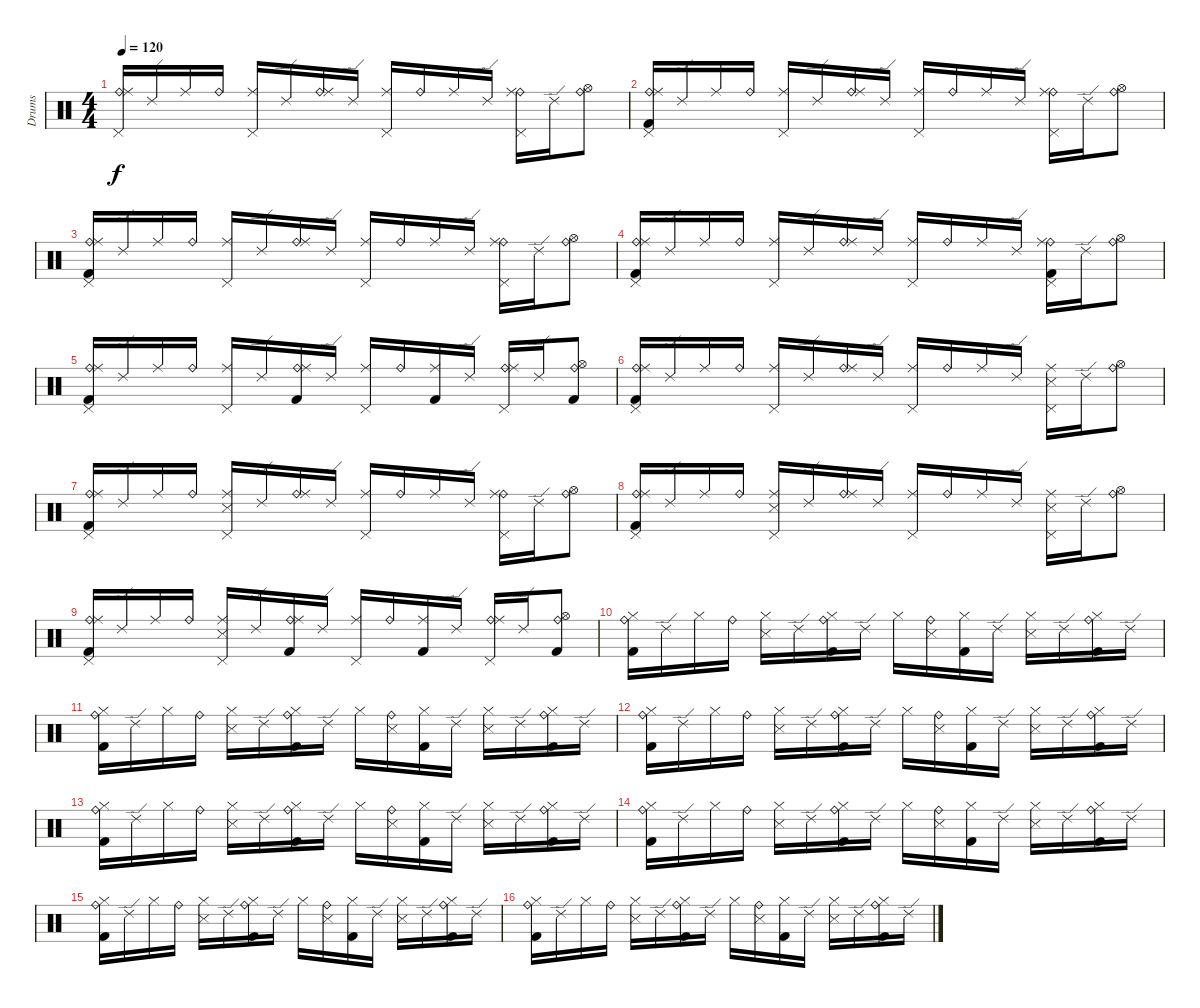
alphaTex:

\track ("Drums" "Drums") {instrument percussion}
\staff {score}
\articulation defaults
\ts (4 4)
\tempo 120
\clef neutral
\ks c
("Pedal Hi-Hat (hit)" "Ride (bell)" "Ride (middle)").16{dy f} "Ride (edge) 2".16 "Ride (middle)".16 "Ride (bell)".16 ("Pedal Hi-Hat (hit)" "Ride (middle)").16 "Ride (edge) 2".16 ("Ride (bell)" "Ride (middle)").16 "Ride (edge) 2".16 ("Pedal Hi-Hat (hit)" "Ride (middle)").16 "Ride (bell)".16 "Ride (middle)".16 "Ride (edge) 2".16 ("Pedal Hi-Hat (hit)" "Ride (bell)" "Ride (middle)").16 "Ride (edge) 2".16 ("Ride (bell)" "Hi-Hat (open)").8 |
("Kick (hit) 2" "Pedal Hi-Hat (hit)" "Ride (bell)" "Ride (middle)").16 "Ride (edge) 2".16 "Ride (middle)".16 "Ride (bell)".16 ("Pedal Hi-Hat (hit)" "Ride (middle)").16 "Ride (edge) 2".16 ("Ride (bell)" "Ride (middle)").16 "Ride (edge) 2".16 ("Pedal Hi-Hat (hit)" "Ride (middle)").16 "Ride (bell)".16 "Ride (middle)".16 "Ride (edge) 2".16 ("Pedal Hi-Hat (hit)" "Ride (bell)" "Ride (middle)").16 "Ride (edge) 2".16 ("Ride (bell)" "Hi-Hat (open)").8 |
("Kick (hit) 2" "Ride (bell)" "Ride (middle)" "Pedal Hi-Hat (hit)").16 "Ride (edge) 2".16 "Ride (middle)".16 "Ride (bell)".16 ("Ride (middle)" "Pedal Hi-Hat (hit)").16 "Ride (edge) 2".16 ("Ride (bell)" "Ride (middle)").16 "Ride (edge) 2".16 ("Ride (middle)" "Pedal Hi-Hat (hit)").16 "Ride (bell)".16 "Ride (middle)".16 "Ride (edge) 2".16 ("Ride (bell)" "Ride (middle)" "Pedal Hi-Hat (hit)").16 "Ride (edge) 2".16 ("Ride (bell)" "Hi-Hat (open)").8 |
("Kick (hit) 2" "Pedal Hi-Hat (hit)" "Ride (bell)" "Ride (middle)").16 "Ride (edge) 2".16 "Ride (middle)".16 "Ride (bell)".16 ("Pedal Hi-Hat (hit)" "Ride (middle)").16 "Ride (edge) 2".16 ("Ride (bell)" "Ride (middle)").16 "Ride (edge) 2".16 ("Pedal Hi-Hat (hit)" "Ride (middle)").16 "Ride (bell)".16 "Ride (middle)".16 "Ride (edge) 2".16 ("Pedal Hi-Hat (hit)" "Kick (hit) 2" "Ride (bell)" "Ride (middle)").16 "Ride (edge) 2".16 ("Ride (bell)" "Hi-Hat (open)").8 |
("Kick (hit) 2" "Pedal Hi-Hat (hit)" "Ride (bell)" "Ride (middle)").16 "Ride (edge) 2".16 "Ride (middle)".16 "Ride (bell)".16 ("Pedal Hi-Hat (hit)" "Ride (middle)").16 "Ride (edge) 2".16 ("Kick (hit) 2" "Ride (bell)" "Ride (middle)").16 "Ride (edge) 2".16 ("Pedal Hi-Hat (hit)" "Ride (middle)").16 "Ride (bell)".16 ("Kick (hit) 2" "Ride (middle)").16 "Ride (edge) 2".16 ("Pedal Hi-Hat (hit)" "Ride (bell)" "Ride (middle)").16 "Ride (edge) 2".16 ("Kick (hit) 2" "Ride (bell)" "Hi-Hat (open)").8 |
("Pedal Hi-Hat (hit)" "Kick (hit) 2" "Ride (bell)" "Ride (middle)").16 "Ride (edge) 2".16 "Ride (middle)".16 "Ride (bell)".16 ("Pedal Hi-Hat (hit)" "Ride (middle)").16 "Ride (edge) 2".16 ("Ride (bell)" "Ride (middle)").16 "Ride (edge) 2".16 ("Pedal Hi-Hat (hit)" "Ride (middle)").16 "Ride (bell)".16 "Ride (middle)".16 "Ride (edge) 2".16 ("Pedal Hi-Hat (hit)" "Snare (side stick) 3" "Ride (middle)").16 "Ride (edge) 2".16 ("Ride (bell)" "Hi-Hat (open)").8 |
("Pedal Hi-Hat (hit)" "Kick (hit) 2" "Ride (bell)" "Ride (middle)").16 "Ride (edge) 2".16 "Ride (middle)".16 "Ride (bell)".16 ("Pedal Hi-Hat (hit)" "Snare (side stick) 3" "Ride (middle)").16 "Ride (edge) 2".16 ("Ride (bell)" "Ride (middle)").16 "Ride (edge) 2".16 ("Pedal Hi-Hat (hit)" "Ride (middle)").16 "Ride (bell)".16 "Ride (middle)".16 "Ride (edge) 2".16 ("Pedal Hi-Hat (hit)" "Ride (bell)" "Ride (middle)").16 "Ride (edge) 2".16 ("Ride (bell)" "Hi-Hat (open)").8 |
("Pedal Hi-Hat (hit)" "Kick (hit) 2" "Ride (bell)" "Ride (middle)").16 "Ride (edge) 2".16 "Ride (middle)".16 "Ride (bell)".16 ("Pedal Hi-Hat (hit)" "Snare (side stick) 3" "Ride (middle)").16 "Ride (edge) 2".16 ("Ride (bell)" "Ride (middle)").16 "Ride (edge) 2".16 ("Pedal Hi-Hat (hit)" "Ride (middle)").16 "Ride (bell)".16 "Ride (middle)".16 "Ride (edge) 2".16 ("Pedal Hi-Hat (hit)" "Snare (side stick) 3" "Ride (middle)").16 "Ride (edge) 2".16 ("Ride (bell)" "Hi-Hat (open)").8 |
("Pedal Hi-Hat (hit)" "Kick (hit) 2" "Ride (bell)" "Ride (middle)").16 "Ride (edge) 2".16 "Ride (middle)".16 "Ride (bell)".16 ("Pedal Hi-Hat (hit)" "Snare (side stick) 3" "Ride (middle)").16 "Ride (edge) 2".16 ("Kick (hit) 2" "Ride (bell)" "Ride (middle)").16 "Ride (edge) 2".16 ("Pedal Hi-Hat (hit)" "Ride (middle)").16 "Ride (bell)".16 ("Kick (hit) 2" "Ride (middle)").16 "Ride (edge) 2".16 ("Pedal Hi-Hat (hit)" "Ride (bell)" "Ride (middle)").16 "Ride (edge) 2".16 ("Kick (hit) 2" "Ride (bell)" "Hi-Hat (open)").8 |
("Kick (hit) 2" "Ride (bell)" "Hi-Hat (closed)").16 "Ride (edge) 2".16 "Hi-Hat (closed)".16 "Ride (bell)".16 ("Snare (side stick) 3" "Hi-Hat (closed)").16 "Ride (edge) 2".16 ("Kick (hit) 2" "Ride (bell)" "Hi-Hat (closed)").16 "Ride (edge) 2".16 "Hi-Hat (closed)".16 ("Snare (side stick) 3" "Ride (bell)").16 ("Kick (hit) 2" "Hi-Hat (closed)").16 "Ride (edge) 2".16 ("Snare (side stick) 3" "Hi-Hat (closed)").16 "Ride (edge) 2".16 ("Kick (hit) 2" "Hi-Hat (closed)" "Ride (bell)").16 "Ride (edge) 2".16 |
("Kick (hit) 2" "Ride (bell)" "Hi-Hat (closed)").16 "Ride (edge) 2".16 "Hi-Hat (closed)".16 "Ride (bell)".16 ("Snare (side stick) 3" "Hi-Hat (closed)").16 "Ride (edge) 2".16 ("Kick (hit) 2" "Ride (bell)" "Hi-Hat (closed)").16 "Ride (edge) 2".16 "Hi-Hat (closed)".16 ("Snare (side stick) 3" "Ride (bell)").16 ("Kick (hit) 2" "Hi-Hat (closed)").16 "Ride (edge) 2".16 ("Snare (side stick) 3" "Hi-Hat (closed)").16 "Ride (edge) 2".16 ("Kick (hit) 2" "Hi-Hat (closed)" "Ride (bell)").16 "Ride (edge) 2".16 |
("Kick (hit) 2" "Ride (bell)" "Hi-Hat (closed)").16 "Ride (edge) 2".16 "Hi-Hat (closed)".16 "Ride (bell)".16 ("Snare (side stick) 3" "Hi-Hat (closed)").16 "Ride (edge) 2".16 ("Kick (hit) 2" "Ride (bell)" "Hi-Hat (closed)").16 "Ride (edge) 2".16 "Hi-Hat (closed)".16 ("Snare (side stick) 3" "Ride (bell)").16 ("Kick (hit) 2" "Hi-Hat (closed)").16 "Ride (edge) 2".16 ("Snare (side stick) 3" "Hi-Hat (closed)").16 "Ride (edge) 2".16 ("Kick (hit) 2" "Hi-Hat (closed)" "Ride (bell)").16 "Ride (edge) 2".16 |
("Kick (hit) 2" "Ride (bell)" "Hi-Hat (closed)").16 "Ride (edge) 2".16 "Hi-Hat (closed)".16 "Ride (bell)".16 ("Snare (side stick) 3" "Hi-Hat (closed)").16 "Ride (edge) 2".16 ("Kick (hit) 2" "Ride (bell)" "Hi-Hat (closed)").16 "Ride (edge) 2".16 "Hi-Hat (closed)".16 ("Snare (side stick) 3" "Ride (bell)").16 ("Kick (hit) 2" "Hi-Hat (closed)").16 "Ride (edge) 2".16 ("Snare (side stick) 3" "Hi-Hat (closed)").16 "Ride (edge) 2".16 ("Kick (hit) 2" "Hi-Hat (closed)" "Ride (bell)").16 "Ride (edge) 2".16 |
("Kick (hit) 2" "Ride (bell)" "Hi-Hat (closed)").16 "Ride (edge) 2".16 "Hi-Hat (closed)".16 "Ride (bell)".16 ("Snare (side stick) 3" "Hi-Hat (closed)").16 "Ride (edge) 2".16 ("Kick (hit) 2" "Ride (bell)" "Hi-Hat (closed)").16 "Ride (edge) 2".16 "Hi-Hat (closed)".16 ("Snare (side stick) 3" "Ride (bell)").16 ("Kick (hit) 2" "Hi-Hat (closed)").16 "Ride (edge) 2".16 ("Snare (side stick) 3" "Hi-Hat (closed)").16 "Ride (edge) 2".16 ("Kick (hit) 2" "Hi-Hat (closed)" "Ride (bell)").16 "Ride (edge) 2".16 |
("Kick (hit) 2" "Ride (bell)" "Hi-Hat (closed)").16 "Ride (edge) 2".16 "Hi-Hat (closed)".16 "Ride (bell)".16 ("Snare (side stick) 3" "Hi-Hat (closed)").16 "Ride (edge) 2".16 ("Kick (hit) 2" "Ride (bell)" "Hi-Hat (closed)").16 "Ride (edge) 2".16 "Hi-Hat (closed)".16 ("Snare (side stick) 3" "Ride (bell)").16 ("Kick (hit) 2" "Hi-Hat (closed)").16 "Ride (edge) 2".16 ("Snare (side stick) 3" "Hi-Hat (closed)").16 "Ride (edge) 2".16 ("Kick (hit) 2" "Hi-Hat (closed)" "Ride (bell)").16 "Ride (edge) 2".16 |
("Kick (hit) 2" "Ride (bell)" "Hi-Hat (closed)").16 "Ride (edge) 2".16 "Hi-Hat (closed)".16 "Ride (bell)".16 ("Snare (side stick) 3" "Hi-Hat (closed)").16 "Ride (edge) 2".16 ("Kick (hit) 2" "Ride (bell)" "Hi-Hat (closed)").16 "Ride (edge) 2".16 "Hi-Hat (closed)".16 ("Snare (side stick) 3" "Ride (bell)").16 ("Kick (hit) 2" "Hi-Hat (closed)").16 "Ride (edge) 2".16 ("Snare (side stick) 3" "Hi-Hat (closed)").16 "Ride (edge) 2".16 ("Kick (hit) 2" "Hi-Hat (closed)" "Ride (bell)").16 "Ride (edge) 2".16
